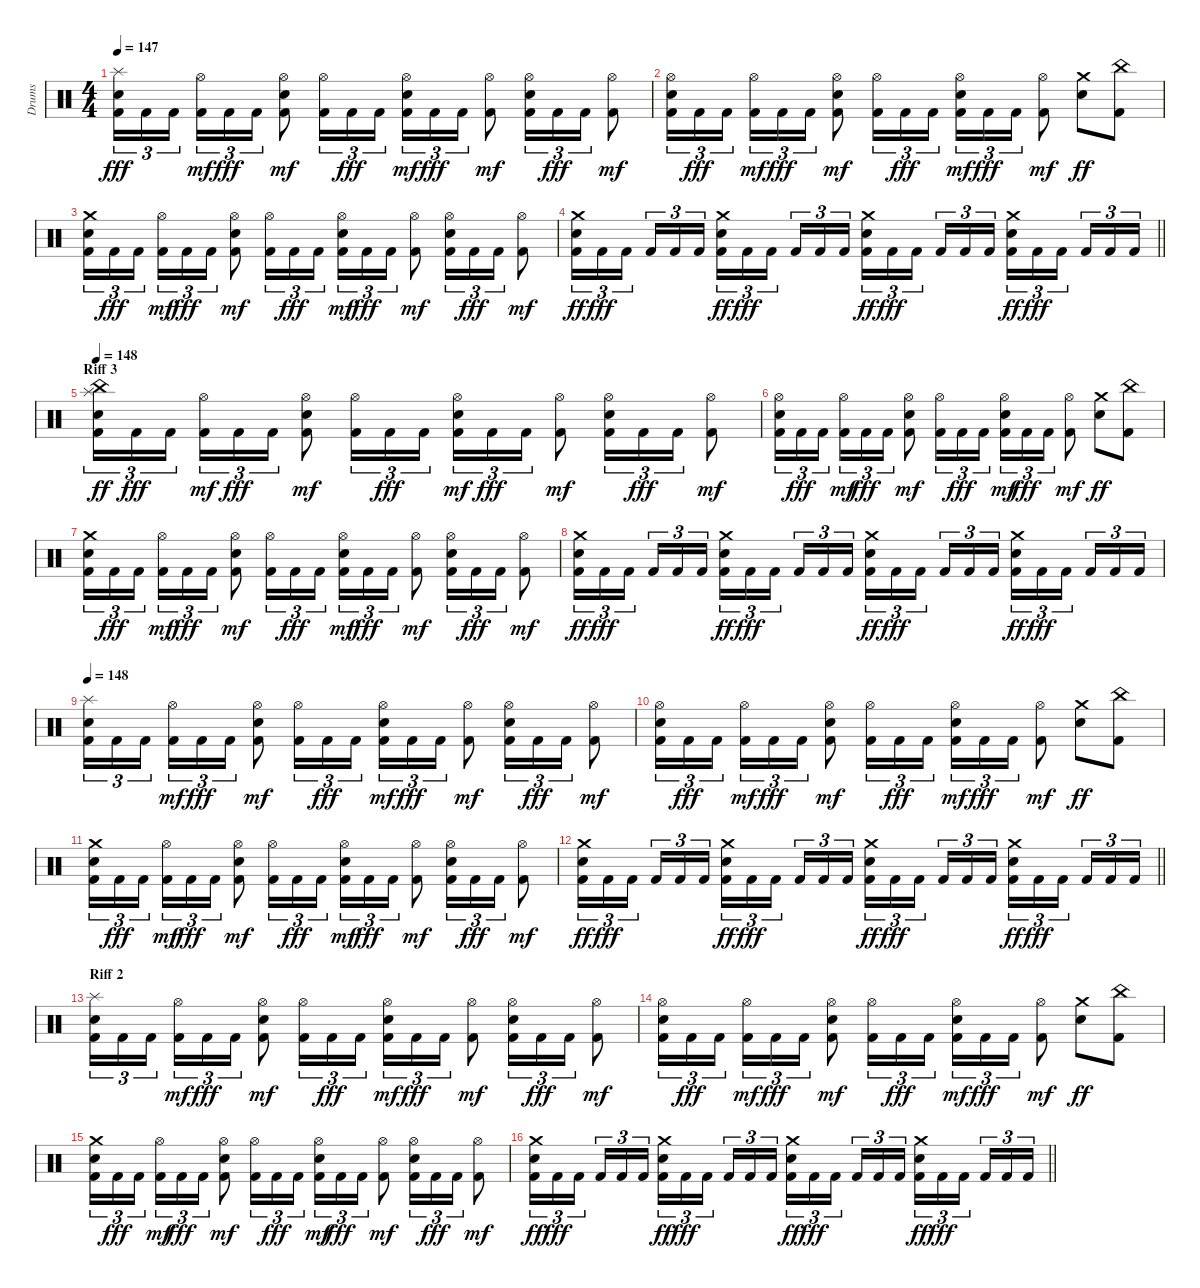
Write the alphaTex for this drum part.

\track ("Drums" "Drums") {instrument percussion}
\staff {score}
\articulation defaults
\ts (4 4)
\tempo 147
\clef neutral
\ks c
("Kick (hit) 2" "Snare (hit) 2" "Splash (hit)").16{tu (3 2) dy fff} "Kick (hit) 2".16{tu (3 2)} "Kick (hit) 2".16{tu (3 2) beam splitsecondary} ("Kick (hit) 2" "Hi-Hat (open)").16{tu (3 2) dy mf} "Kick (hit) 2".16{tu (3 2) dy fff} "Kick (hit) 2".16{tu (3 2)} ("Kick (hit) 2" "Snare (hit) 2" "Hi-Hat (open)").8{dy mf} ("Kick (hit) 2" "Hi-Hat (open)").16{tu (3 2)} "Kick (hit) 2".16{tu (3 2) dy fff} "Kick (hit) 2".16{tu (3 2)} ("Kick (hit) 2" "Snare (hit) 2" "Hi-Hat (open)").16{tu (3 2) dy mf} "Kick (hit) 2".16{tu (3 2) dy fff} "Kick (hit) 2".16{tu (3 2)} ("Kick (hit) 2" "Hi-Hat (open)").8{dy mf} ("Kick (hit) 2" "Snare (hit) 2" "Hi-Hat (open)").16{tu (3 2)} "Kick (hit) 2".16{tu (3 2) dy fff} "Kick (hit) 2".16{tu (3 2)} ("Kick (hit) 2" "Hi-Hat (open)").8{dy mf} |
("Kick (hit) 2" "Snare (hit) 2" "Hi-Hat (open)").16{tu (3 2)} "Kick (hit) 2".16{tu (3 2) dy fff} "Kick (hit) 2".16{tu (3 2) beam splitsecondary} ("Kick (hit) 2" "Hi-Hat (open)").16{tu (3 2) dy mf} "Kick (hit) 2".16{tu (3 2) dy fff} "Kick (hit) 2".16{tu (3 2)} ("Kick (hit) 2" "Snare (hit) 2" "Hi-Hat (open)").8{dy mf} ("Kick (hit) 2" "Hi-Hat (open)").16{tu (3 2)} "Kick (hit) 2".16{tu (3 2) dy fff} "Kick (hit) 2".16{tu (3 2)} ("Kick (hit) 2" "Snare (hit) 2" "Hi-Hat (open)").16{tu (3 2) dy mf} "Kick (hit) 2".16{tu (3 2) dy fff} "Kick (hit) 2".16{tu (3 2)} ("Kick (hit) 2" "Hi-Hat (open)").8{dy mf} ("Snare (hit) 2" "Crash medium (hit)").8{dy ff} ("Kick (hit) 2" "China (hit)").8 |
("Kick (hit) 2" "Snare (hit) 2" "Crash medium (hit)").16{tu (3 2)} "Kick (hit) 2".16{tu (3 2) dy fff} "Kick (hit) 2".16{tu (3 2) beam splitsecondary} ("Kick (hit) 2" "Hi-Hat (open)").16{tu (3 2) dy mf} "Kick (hit) 2".16{tu (3 2) dy fff} "Kick (hit) 2".16{tu (3 2)} ("Kick (hit) 2" "Snare (hit) 2" "Hi-Hat (open)").8{dy mf} ("Kick (hit) 2" "Hi-Hat (open)").16{tu (3 2)} "Kick (hit) 2".16{tu (3 2) dy fff} "Kick (hit) 2".16{tu (3 2)} ("Kick (hit) 2" "Snare (hit) 2" "Hi-Hat (open)").16{tu (3 2) dy mf} "Kick (hit) 2".16{tu (3 2) dy fff} "Kick (hit) 2".16{tu (3 2)} ("Kick (hit) 2" "Hi-Hat (open)").8{dy mf} ("Kick (hit) 2" "Snare (hit) 2" "Hi-Hat (open)").16{tu (3 2)} "Kick (hit) 2".16{tu (3 2) dy fff} "Kick (hit) 2".16{tu (3 2)} ("Kick (hit) 2" "Hi-Hat (open)").8{dy mf} |
\barLineRight lightlight
("Kick (hit) 2" "Snare (hit) 2" "Crash medium (hit)").16{tu (3 2) dy ff} "Kick (hit) 2".16{tu (3 2) dy fff} "Kick (hit) 2".16{tu (3 2) beam splitsecondary} "Kick (hit) 2".16{tu (3 2)} "Kick (hit) 2".16{tu (3 2)} "Kick (hit) 2".16{tu (3 2)} ("Kick (hit) 2" "Snare (hit) 2" "Crash medium (hit)").16{tu (3 2) dy ff} "Kick (hit) 2".16{tu (3 2) dy fff} "Kick (hit) 2".16{tu (3 2) beam splitsecondary} "Kick (hit) 2".16{tu (3 2)} "Kick (hit) 2".16{tu (3 2)} "Kick (hit) 2".16{tu (3 2)} ("Kick (hit) 2" "Snare (hit) 2" "Crash medium (hit)").16{tu (3 2) dy ff} "Kick (hit) 2".16{tu (3 2) dy fff} "Kick (hit) 2".16{tu (3 2) beam splitsecondary} "Kick (hit) 2".16{tu (3 2)} "Kick (hit) 2".16{tu (3 2)} "Kick (hit) 2".16{tu (3 2)} ("Kick (hit) 2" "Snare (hit) 2" "Crash medium (hit)").16{tu (3 2) dy ff} "Kick (hit) 2".16{tu (3 2) dy fff} "Kick (hit) 2".16{tu (3 2) beam splitsecondary} "Kick (hit) 2".16{tu (3 2)} "Kick (hit) 2".16{tu (3 2)} "Kick (hit) 2".16{tu (3 2)} |
\section ("" "Riff 3")
\tempo 148
("Kick (hit) 2" "Snare (hit) 2" "China (hit)" "Splash (hit)").16{tu (3 2) dy ff} "Kick (hit) 2".16{tu (3 2) dy fff} "Kick (hit) 2".16{tu (3 2) beam splitsecondary} ("Kick (hit) 2" "Hi-Hat (open)").16{tu (3 2) dy mf} "Kick (hit) 2".16{tu (3 2) dy fff} "Kick (hit) 2".16{tu (3 2)} ("Kick (hit) 2" "Snare (hit) 2" "Hi-Hat (open)").8{dy mf} ("Kick (hit) 2" "Hi-Hat (open)").16{tu (3 2)} "Kick (hit) 2".16{tu (3 2) dy fff} "Kick (hit) 2".16{tu (3 2)} ("Kick (hit) 2" "Snare (hit) 2" "Hi-Hat (open)").16{tu (3 2) dy mf} "Kick (hit) 2".16{tu (3 2) dy fff} "Kick (hit) 2".16{tu (3 2)} ("Kick (hit) 2" "Hi-Hat (open)").8{dy mf} ("Kick (hit) 2" "Snare (hit) 2" "Hi-Hat (open)").16{tu (3 2)} "Kick (hit) 2".16{tu (3 2) dy fff} "Kick (hit) 2".16{tu (3 2)} ("Kick (hit) 2" "Hi-Hat (open)").8{dy mf} |
("Kick (hit) 2" "Snare (hit) 2" "Hi-Hat (open)").16{tu (3 2)} "Kick (hit) 2".16{tu (3 2) dy fff} "Kick (hit) 2".16{tu (3 2) beam splitsecondary} ("Kick (hit) 2" "Hi-Hat (open)").16{tu (3 2) dy mf} "Kick (hit) 2".16{tu (3 2) dy fff} "Kick (hit) 2".16{tu (3 2)} ("Kick (hit) 2" "Snare (hit) 2" "Hi-Hat (open)").8{dy mf} ("Kick (hit) 2" "Hi-Hat (open)").16{tu (3 2)} "Kick (hit) 2".16{tu (3 2) dy fff} "Kick (hit) 2".16{tu (3 2)} ("Kick (hit) 2" "Snare (hit) 2" "Hi-Hat (open)").16{tu (3 2) dy mf} "Kick (hit) 2".16{tu (3 2) dy fff} "Kick (hit) 2".16{tu (3 2)} ("Kick (hit) 2" "Hi-Hat (open)").8{dy mf} ("Snare (hit) 2" "Crash medium (hit)").8{dy ff} ("Kick (hit) 2" "China (hit)").8 |
("Kick (hit) 2" "Snare (hit) 2" "Crash medium (hit)").16{tu (3 2)} "Kick (hit) 2".16{tu (3 2) dy fff} "Kick (hit) 2".16{tu (3 2) beam splitsecondary} ("Kick (hit) 2" "Hi-Hat (open)").16{tu (3 2) dy mf} "Kick (hit) 2".16{tu (3 2) dy fff} "Kick (hit) 2".16{tu (3 2)} ("Kick (hit) 2" "Snare (hit) 2" "Hi-Hat (open)").8{dy mf} ("Kick (hit) 2" "Hi-Hat (open)").16{tu (3 2)} "Kick (hit) 2".16{tu (3 2) dy fff} "Kick (hit) 2".16{tu (3 2)} ("Kick (hit) 2" "Snare (hit) 2" "Hi-Hat (open)").16{tu (3 2) dy mf} "Kick (hit) 2".16{tu (3 2) dy fff} "Kick (hit) 2".16{tu (3 2)} ("Kick (hit) 2" "Hi-Hat (open)").8{dy mf} ("Kick (hit) 2" "Snare (hit) 2" "Hi-Hat (open)").16{tu (3 2)} "Kick (hit) 2".16{tu (3 2) dy fff} "Kick (hit) 2".16{tu (3 2)} ("Kick (hit) 2" "Hi-Hat (open)").8{dy mf} |
("Kick (hit) 2" "Snare (hit) 2" "Crash medium (hit)").16{tu (3 2) dy ff} "Kick (hit) 2".16{tu (3 2) dy fff} "Kick (hit) 2".16{tu (3 2) beam splitsecondary} "Kick (hit) 2".16{tu (3 2)} "Kick (hit) 2".16{tu (3 2)} "Kick (hit) 2".16{tu (3 2)} ("Kick (hit) 2" "Snare (hit) 2" "Crash medium (hit)").16{tu (3 2) dy ff} "Kick (hit) 2".16{tu (3 2) dy fff} "Kick (hit) 2".16{tu (3 2) beam splitsecondary} "Kick (hit) 2".16{tu (3 2)} "Kick (hit) 2".16{tu (3 2)} "Kick (hit) 2".16{tu (3 2)} ("Kick (hit) 2" "Snare (hit) 2" "Crash medium (hit)").16{tu (3 2) dy ff} "Kick (hit) 2".16{tu (3 2) dy fff} "Kick (hit) 2".16{tu (3 2) beam splitsecondary} "Kick (hit) 2".16{tu (3 2)} "Kick (hit) 2".16{tu (3 2)} "Kick (hit) 2".16{tu (3 2)} ("Kick (hit) 2" "Snare (hit) 2" "Crash medium (hit)").16{tu (3 2) dy ff} "Kick (hit) 2".16{tu (3 2) dy fff} "Kick (hit) 2".16{tu (3 2) beam splitsecondary} "Kick (hit) 2".16{tu (3 2)} "Kick (hit) 2".16{tu (3 2)} "Kick (hit) 2".16{tu (3 2)} |
\tempo 148
("Kick (hit) 2" "Snare (hit) 2" "Splash (hit)").16{tu (3 2)} "Kick (hit) 2".16{tu (3 2)} "Kick (hit) 2".16{tu (3 2) beam splitsecondary} ("Kick (hit) 2" "Hi-Hat (open)").16{tu (3 2) dy mf} "Kick (hit) 2".16{tu (3 2) dy fff} "Kick (hit) 2".16{tu (3 2)} ("Kick (hit) 2" "Snare (hit) 2" "Hi-Hat (open)").8{dy mf} ("Kick (hit) 2" "Hi-Hat (open)").16{tu (3 2)} "Kick (hit) 2".16{tu (3 2) dy fff} "Kick (hit) 2".16{tu (3 2)} ("Kick (hit) 2" "Snare (hit) 2" "Hi-Hat (open)").16{tu (3 2) dy mf} "Kick (hit) 2".16{tu (3 2) dy fff} "Kick (hit) 2".16{tu (3 2)} ("Kick (hit) 2" "Hi-Hat (open)").8{dy mf} ("Kick (hit) 2" "Snare (hit) 2" "Hi-Hat (open)").16{tu (3 2)} "Kick (hit) 2".16{tu (3 2) dy fff} "Kick (hit) 2".16{tu (3 2)} ("Kick (hit) 2" "Hi-Hat (open)").8{dy mf} |
("Kick (hit) 2" "Snare (hit) 2" "Hi-Hat (open)").16{tu (3 2)} "Kick (hit) 2".16{tu (3 2) dy fff} "Kick (hit) 2".16{tu (3 2) beam splitsecondary} ("Kick (hit) 2" "Hi-Hat (open)").16{tu (3 2) dy mf} "Kick (hit) 2".16{tu (3 2) dy fff} "Kick (hit) 2".16{tu (3 2)} ("Kick (hit) 2" "Snare (hit) 2" "Hi-Hat (open)").8{dy mf} ("Kick (hit) 2" "Hi-Hat (open)").16{tu (3 2)} "Kick (hit) 2".16{tu (3 2) dy fff} "Kick (hit) 2".16{tu (3 2)} ("Kick (hit) 2" "Snare (hit) 2" "Hi-Hat (open)").16{tu (3 2) dy mf} "Kick (hit) 2".16{tu (3 2) dy fff} "Kick (hit) 2".16{tu (3 2)} ("Kick (hit) 2" "Hi-Hat (open)").8{dy mf} ("Snare (hit) 2" "Crash medium (hit)").8{dy ff} ("Kick (hit) 2" "China (hit)").8 |
("Kick (hit) 2" "Snare (hit) 2" "Crash medium (hit)").16{tu (3 2)} "Kick (hit) 2".16{tu (3 2) dy fff} "Kick (hit) 2".16{tu (3 2) beam splitsecondary} ("Kick (hit) 2" "Hi-Hat (open)").16{tu (3 2) dy mf} "Kick (hit) 2".16{tu (3 2) dy fff} "Kick (hit) 2".16{tu (3 2)} ("Kick (hit) 2" "Snare (hit) 2" "Hi-Hat (open)").8{dy mf} ("Kick (hit) 2" "Hi-Hat (open)").16{tu (3 2)} "Kick (hit) 2".16{tu (3 2) dy fff} "Kick (hit) 2".16{tu (3 2)} ("Kick (hit) 2" "Snare (hit) 2" "Hi-Hat (open)").16{tu (3 2) dy mf} "Kick (hit) 2".16{tu (3 2) dy fff} "Kick (hit) 2".16{tu (3 2)} ("Kick (hit) 2" "Hi-Hat (open)").8{dy mf} ("Kick (hit) 2" "Snare (hit) 2" "Hi-Hat (open)").16{tu (3 2)} "Kick (hit) 2".16{tu (3 2) dy fff} "Kick (hit) 2".16{tu (3 2)} ("Kick (hit) 2" "Hi-Hat (open)").8{dy mf} |
\barLineRight lightlight
("Kick (hit) 2" "Snare (hit) 2" "Crash medium (hit)").16{tu (3 2) dy ff} "Kick (hit) 2".16{tu (3 2) dy fff} "Kick (hit) 2".16{tu (3 2) beam splitsecondary} "Kick (hit) 2".16{tu (3 2)} "Kick (hit) 2".16{tu (3 2)} "Kick (hit) 2".16{tu (3 2)} ("Kick (hit) 2" "Snare (hit) 2" "Crash medium (hit)").16{tu (3 2) dy ff} "Kick (hit) 2".16{tu (3 2) dy fff} "Kick (hit) 2".16{tu (3 2) beam splitsecondary} "Kick (hit) 2".16{tu (3 2)} "Kick (hit) 2".16{tu (3 2)} "Kick (hit) 2".16{tu (3 2)} ("Kick (hit) 2" "Snare (hit) 2" "Crash medium (hit)").16{tu (3 2) dy ff} "Kick (hit) 2".16{tu (3 2) dy fff} "Kick (hit) 2".16{tu (3 2) beam splitsecondary} "Kick (hit) 2".16{tu (3 2)} "Kick (hit) 2".16{tu (3 2)} "Kick (hit) 2".16{tu (3 2)} ("Kick (hit) 2" "Snare (hit) 2" "Crash medium (hit)").16{tu (3 2) dy ff} "Kick (hit) 2".16{tu (3 2) dy fff} "Kick (hit) 2".16{tu (3 2) beam splitsecondary} "Kick (hit) 2".16{tu (3 2)} "Kick (hit) 2".16{tu (3 2)} "Kick (hit) 2".16{tu (3 2)} |
\section ("" "Riff 2")
("Kick (hit) 2" "Snare (hit) 2" "Splash (hit)").16{tu (3 2)} "Kick (hit) 2".16{tu (3 2)} "Kick (hit) 2".16{tu (3 2) beam splitsecondary} ("Kick (hit) 2" "Hi-Hat (open)").16{tu (3 2) dy mf} "Kick (hit) 2".16{tu (3 2) dy fff} "Kick (hit) 2".16{tu (3 2)} ("Kick (hit) 2" "Snare (hit) 2" "Hi-Hat (open)").8{dy mf} ("Kick (hit) 2" "Hi-Hat (open)").16{tu (3 2)} "Kick (hit) 2".16{tu (3 2) dy fff} "Kick (hit) 2".16{tu (3 2)} ("Kick (hit) 2" "Snare (hit) 2" "Hi-Hat (open)").16{tu (3 2) dy mf} "Kick (hit) 2".16{tu (3 2) dy fff} "Kick (hit) 2".16{tu (3 2)} ("Kick (hit) 2" "Hi-Hat (open)").8{dy mf} ("Kick (hit) 2" "Snare (hit) 2" "Hi-Hat (open)").16{tu (3 2)} "Kick (hit) 2".16{tu (3 2) dy fff} "Kick (hit) 2".16{tu (3 2)} ("Kick (hit) 2" "Hi-Hat (open)").8{dy mf} |
("Kick (hit) 2" "Snare (hit) 2" "Hi-Hat (open)").16{tu (3 2)} "Kick (hit) 2".16{tu (3 2) dy fff} "Kick (hit) 2".16{tu (3 2) beam splitsecondary} ("Kick (hit) 2" "Hi-Hat (open)").16{tu (3 2) dy mf} "Kick (hit) 2".16{tu (3 2) dy fff} "Kick (hit) 2".16{tu (3 2)} ("Kick (hit) 2" "Snare (hit) 2" "Hi-Hat (open)").8{dy mf} ("Kick (hit) 2" "Hi-Hat (open)").16{tu (3 2)} "Kick (hit) 2".16{tu (3 2) dy fff} "Kick (hit) 2".16{tu (3 2)} ("Kick (hit) 2" "Snare (hit) 2" "Hi-Hat (open)").16{tu (3 2) dy mf} "Kick (hit) 2".16{tu (3 2) dy fff} "Kick (hit) 2".16{tu (3 2)} ("Kick (hit) 2" "Hi-Hat (open)").8{dy mf} ("Snare (hit) 2" "Crash medium (hit)").8{dy ff} ("Kick (hit) 2" "China (hit)").8 |
("Kick (hit) 2" "Snare (hit) 2" "Crash medium (hit)").16{tu (3 2)} "Kick (hit) 2".16{tu (3 2) dy fff} "Kick (hit) 2".16{tu (3 2) beam splitsecondary} ("Kick (hit) 2" "Hi-Hat (open)").16{tu (3 2) dy mf} "Kick (hit) 2".16{tu (3 2) dy fff} "Kick (hit) 2".16{tu (3 2)} ("Kick (hit) 2" "Snare (hit) 2" "Hi-Hat (open)").8{dy mf} ("Kick (hit) 2" "Hi-Hat (open)").16{tu (3 2)} "Kick (hit) 2".16{tu (3 2) dy fff} "Kick (hit) 2".16{tu (3 2)} ("Kick (hit) 2" "Snare (hit) 2" "Hi-Hat (open)").16{tu (3 2) dy mf} "Kick (hit) 2".16{tu (3 2) dy fff} "Kick (hit) 2".16{tu (3 2)} ("Kick (hit) 2" "Hi-Hat (open)").8{dy mf} ("Kick (hit) 2" "Snare (hit) 2" "Hi-Hat (open)").16{tu (3 2)} "Kick (hit) 2".16{tu (3 2) dy fff} "Kick (hit) 2".16{tu (3 2)} ("Kick (hit) 2" "Hi-Hat (open)").8{dy mf} |
\barLineRight lightlight
("Kick (hit) 2" "Snare (hit) 2" "Crash medium (hit)").16{tu (3 2) dy ff} "Kick (hit) 2".16{tu (3 2) dy fff} "Kick (hit) 2".16{tu (3 2) beam splitsecondary} "Kick (hit) 2".16{tu (3 2)} "Kick (hit) 2".16{tu (3 2)} "Kick (hit) 2".16{tu (3 2)} ("Kick (hit) 2" "Snare (hit) 2" "Crash medium (hit)").16{tu (3 2) dy ff} "Kick (hit) 2".16{tu (3 2) dy fff} "Kick (hit) 2".16{tu (3 2) beam splitsecondary} "Kick (hit) 2".16{tu (3 2)} "Kick (hit) 2".16{tu (3 2)} "Kick (hit) 2".16{tu (3 2)} ("Kick (hit) 2" "Snare (hit) 2" "Crash medium (hit)").16{tu (3 2) dy ff} "Kick (hit) 2".16{tu (3 2) dy fff} "Kick (hit) 2".16{tu (3 2) beam splitsecondary} "Kick (hit) 2".16{tu (3 2)} "Kick (hit) 2".16{tu (3 2)} "Kick (hit) 2".16{tu (3 2)} ("Kick (hit) 2" "Snare (hit) 2" "Crash medium (hit)").16{tu (3 2) dy ff} "Kick (hit) 2".16{tu (3 2) dy fff} "Kick (hit) 2".16{tu (3 2) beam splitsecondary} "Kick (hit) 2".16{tu (3 2)} "Kick (hit) 2".16{tu (3 2)} "Kick (hit) 2".16{tu (3 2)}
